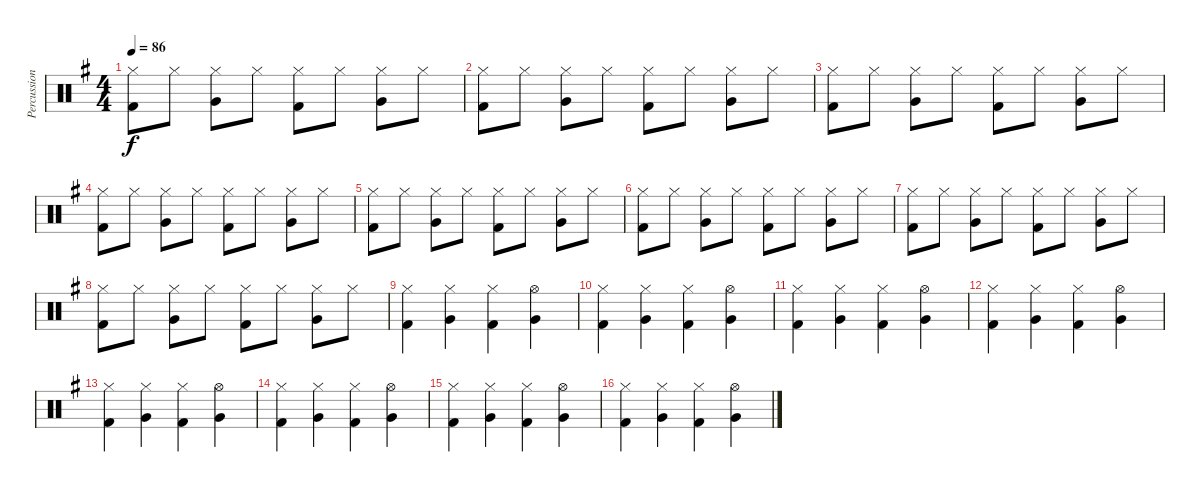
\track ("Percussions" "Percussion") {instrument percussion}
\staff {score}
\articulation defaults
\ts (4 4)
\tempo 86
\clef neutral
\ks g
("Hi-Hat (closed)" "Kick (hit) 2").8{dy f} "Hi-Hat (closed)".8 ("Hi-Hat (closed)" "Very Low Tom (hit)").8 "Hi-Hat (closed)".8 ("Hi-Hat (closed)" "Kick (hit) 2").8 "Hi-Hat (closed)".8 ("Hi-Hat (closed)" "Very Low Tom (hit)").8 "Hi-Hat (closed)".8 |
("Hi-Hat (closed)" "Kick (hit) 2").8 "Hi-Hat (closed)".8 ("Hi-Hat (closed)" "Very Low Tom (hit)").8 "Hi-Hat (closed)".8 ("Hi-Hat (closed)" "Kick (hit) 2").8 "Hi-Hat (closed)".8 ("Hi-Hat (closed)" "Very Low Tom (hit)").8 "Hi-Hat (closed)".8 |
("Hi-Hat (closed)" "Kick (hit) 2").8 "Hi-Hat (closed)".8 ("Hi-Hat (closed)" "Very Low Tom (hit)").8 "Hi-Hat (closed)".8 ("Hi-Hat (closed)" "Kick (hit) 2").8 "Hi-Hat (closed)".8 ("Hi-Hat (closed)" "Very Low Tom (hit)").8 "Hi-Hat (closed)".8 |
("Hi-Hat (closed)" "Kick (hit) 2").8 "Hi-Hat (closed)".8 ("Hi-Hat (closed)" "Very Low Tom (hit)").8 "Hi-Hat (closed)".8 ("Hi-Hat (closed)" "Kick (hit) 2").8 "Hi-Hat (closed)".8 ("Hi-Hat (closed)" "Very Low Tom (hit)").8 "Hi-Hat (closed)".8 |
("Hi-Hat (closed)" "Kick (hit) 2").8 "Hi-Hat (closed)".8 ("Hi-Hat (closed)" "Very Low Tom (hit)").8 "Hi-Hat (closed)".8 ("Hi-Hat (closed)" "Kick (hit) 2").8 "Hi-Hat (closed)".8 ("Hi-Hat (closed)" "Very Low Tom (hit)").8 "Hi-Hat (closed)".8 |
("Hi-Hat (closed)" "Kick (hit) 2").8 "Hi-Hat (closed)".8 ("Hi-Hat (closed)" "Very Low Tom (hit)").8 "Hi-Hat (closed)".8 ("Hi-Hat (closed)" "Kick (hit) 2").8 "Hi-Hat (closed)".8 ("Hi-Hat (closed)" "Very Low Tom (hit)").8 "Hi-Hat (closed)".8 |
("Hi-Hat (closed)" "Kick (hit) 2").8 "Hi-Hat (closed)".8 ("Hi-Hat (closed)" "Very Low Tom (hit)").8 "Hi-Hat (closed)".8 ("Hi-Hat (closed)" "Kick (hit) 2").8 "Hi-Hat (closed)".8 ("Hi-Hat (closed)" "Very Low Tom (hit)").8 "Hi-Hat (closed)".8 |
("Hi-Hat (closed)" "Kick (hit) 2").8 "Hi-Hat (closed)".8 ("Hi-Hat (closed)" "Very Low Tom (hit)").8 "Hi-Hat (closed)".8 ("Hi-Hat (closed)" "Kick (hit) 2").8 "Hi-Hat (closed)".8 ("Hi-Hat (closed)" "Very Low Tom (hit)").8 "Hi-Hat (closed)".8 |
("Hi-Hat (closed)" "Kick (hit) 2").4 ("Hi-Hat (closed)" "Very Low Tom (hit)").4 ("Hi-Hat (closed)" "Kick (hit) 2").4 ("Hi-Hat (open)" "Very Low Tom (hit)").4 |
("Hi-Hat (closed)" "Kick (hit) 2").4 ("Hi-Hat (closed)" "Very Low Tom (hit)").4 ("Hi-Hat (closed)" "Kick (hit) 2").4 ("Hi-Hat (open)" "Very Low Tom (hit)").4 |
("Hi-Hat (closed)" "Kick (hit) 2").4 ("Hi-Hat (closed)" "Very Low Tom (hit)").4 ("Hi-Hat (closed)" "Kick (hit) 2").4 ("Hi-Hat (open)" "Very Low Tom (hit)").4 |
("Hi-Hat (closed)" "Kick (hit) 2").4 ("Hi-Hat (closed)" "Very Low Tom (hit)").4 ("Hi-Hat (closed)" "Kick (hit) 2").4 ("Hi-Hat (open)" "Very Low Tom (hit)").4 |
("Hi-Hat (closed)" "Kick (hit) 2").4 ("Hi-Hat (closed)" "Very Low Tom (hit)").4 ("Hi-Hat (closed)" "Kick (hit) 2").4 ("Hi-Hat (open)" "Very Low Tom (hit)").4 |
("Hi-Hat (closed)" "Kick (hit) 2").4 ("Hi-Hat (closed)" "Very Low Tom (hit)").4 ("Hi-Hat (closed)" "Kick (hit) 2").4 ("Hi-Hat (open)" "Very Low Tom (hit)").4 |
("Hi-Hat (closed)" "Kick (hit) 2").4 ("Hi-Hat (closed)" "Very Low Tom (hit)").4 ("Hi-Hat (closed)" "Kick (hit) 2").4 ("Hi-Hat (open)" "Very Low Tom (hit)").4 |
("Hi-Hat (closed)" "Kick (hit) 2").4 ("Hi-Hat (closed)" "Very Low Tom (hit)").4 ("Hi-Hat (closed)" "Kick (hit) 2").4 ("Hi-Hat (open)" "Very Low Tom (hit)").4
